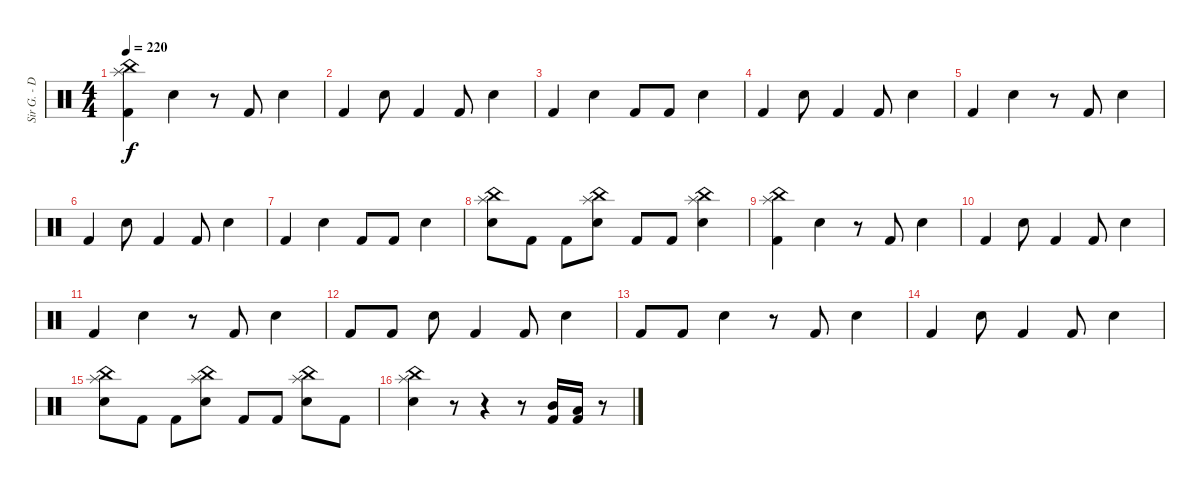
\track ("Sir G. - Drums" "Sir G. - D") {instrument percussion}
\staff {score}
\articulation defaults
\ts (4 4)
\tempo 220
\clef neutral
\ks c
("China (hit)" "Splash (hit)" "Kick (hit) 2").4{dy f} "Snare (hit) 2".4 r.8 "Kick (hit) 2".8 "Snare (hit) 2".4 |
"Kick (hit) 2".4 "Snare (hit) 2".8 "Kick (hit) 2".4 "Kick (hit) 2".8 "Snare (hit) 2".4 |
"Kick (hit) 2".4 "Snare (hit) 2".4 "Kick (hit) 2".8 "Kick (hit) 2".8 "Snare (hit) 2".4 |
"Kick (hit) 2".4 "Snare (hit) 2".8 "Kick (hit) 2".4 "Kick (hit) 2".8 "Snare (hit) 2".4 |
"Kick (hit) 2".4 "Snare (hit) 2".4 r.8 "Kick (hit) 2".8 "Snare (hit) 2".4 |
"Kick (hit) 2".4 "Snare (hit) 2".8 "Kick (hit) 2".4 "Kick (hit) 2".8 "Snare (hit) 2".4 |
"Kick (hit) 2".4 "Snare (hit) 2".4 "Kick (hit) 2".8 "Kick (hit) 2".8 "Snare (hit) 2".4 |
("China (hit)" "Splash (hit)" "Snare (hit) 2").8 "Kick (hit) 2".8 "Kick (hit) 2".8 ("China (hit)" "Splash (hit)" "Snare (hit) 2").8 "Kick (hit) 2".8 "Kick (hit) 2".8 ("China (hit)" "Splash (hit)" "Snare (hit) 2").4 |
("China (hit)" "Splash (hit)" "Kick (hit) 2").4 "Snare (hit) 2".4 r.8 "Kick (hit) 2".8 "Snare (hit) 2".4 |
"Kick (hit) 2".4 "Snare (hit) 2".8 "Kick (hit) 2".4 "Kick (hit) 2".8 "Snare (hit) 2".4 |
"Kick (hit) 2".4 "Snare (hit) 2".4 r.8 "Kick (hit) 2".8 "Snare (hit) 2".4 |
"Kick (hit) 2".8 "Kick (hit) 2".8 "Snare (hit) 2".8 "Kick (hit) 2".4 "Kick (hit) 2".8 "Snare (hit) 2".4 |
"Kick (hit) 2".8 "Kick (hit) 2".8 "Snare (hit) 2".4 r.8 "Kick (hit) 2".8 "Snare (hit) 2".4 |
"Kick (hit) 2".4 "Snare (hit) 2".8 "Kick (hit) 2".4 "Kick (hit) 2".8 "Snare (hit) 2".4 |
("Splash (hit)" "China (hit)" "Snare (hit) 2").8 "Kick (hit) 2".8 "Kick (hit) 2".8 ("Splash (hit)" "China (hit)" "Snare (hit) 2").8 "Kick (hit) 2".8 "Kick (hit) 2".8 ("Splash (hit)" "China (hit)" "Snare (hit) 2").8 "Kick (hit) 2".8 |
("Splash (hit)" "China (hit)" "Snare (hit) 2").4 r.8 r.4 r.8 ("Mid Tom (hit)" "Kick (hit) 2").16 ("Low Floor Tom (hit)" "Kick (hit) 2").16 r.8
